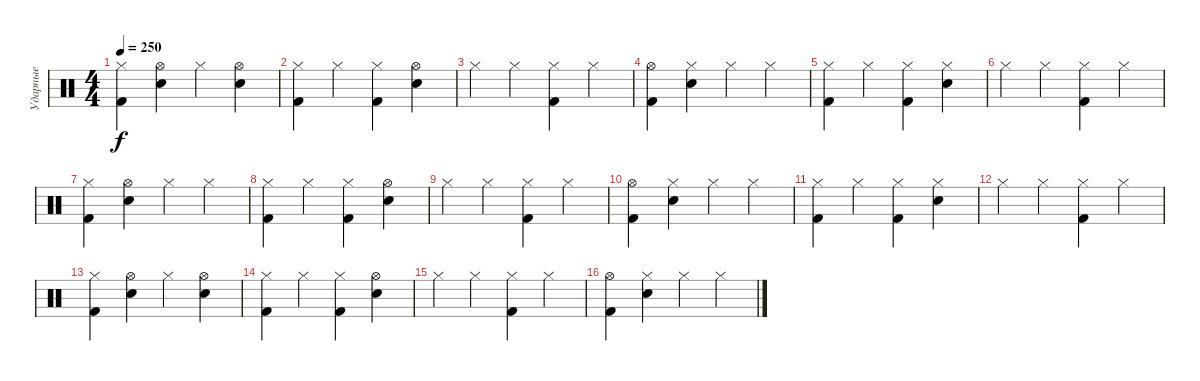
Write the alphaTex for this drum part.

\track ("Ударные" "Ударные") {instrument percussion}
\staff {score}
\articulation defaults
\ts (4 4)
\tempo 250
\clef neutral
\ks c
("Hi-Hat (closed)" "Kick (hit) 2").4{dy f} ("Snare (hit) 2" "Hi-Hat (open)").4 "Hi-Hat (closed)".4 ("Snare (hit) 2" "Hi-Hat (open)").4 |
("Hi-Hat (closed)" "Kick (hit) 2").4 "Hi-Hat (closed)".4 ("Hi-Hat (closed)" "Kick (hit) 2").4 ("Snare (hit) 2" "Hi-Hat (open)").4 |
"Hi-Hat (closed)".4 "Hi-Hat (closed)".4 ("Hi-Hat (closed)" "Kick (hit) 2").4 "Hi-Hat (closed)".4 |
("Hi-Hat (open)" "Kick (hit) 2").4 ("Snare (hit) 2" "Hi-Hat (closed)").4 "Hi-Hat (closed)".4 "Hi-Hat (closed)".4 |
("Hi-Hat (closed)" "Kick (hit) 2").4 "Hi-Hat (closed)".4 ("Hi-Hat (closed)" "Kick (hit) 2").4 ("Snare (hit) 2" "Hi-Hat (closed)").4 |
"Hi-Hat (closed)".4 "Hi-Hat (closed)".4 ("Hi-Hat (closed)" "Kick (hit) 2").4 "Hi-Hat (closed)".4 |
("Hi-Hat (closed)" "Kick (hit) 2").4 ("Snare (hit) 2" "Hi-Hat (open)").4 "Hi-Hat (closed)".4 "Hi-Hat (closed)".4 |
("Hi-Hat (closed)" "Kick (hit) 2").4 "Hi-Hat (closed)".4 ("Hi-Hat (closed)" "Kick (hit) 2").4 ("Snare (hit) 2" "Hi-Hat (open)").4 |
"Hi-Hat (closed)".4 "Hi-Hat (closed)".4 ("Hi-Hat (closed)" "Kick (hit) 2").4 "Hi-Hat (closed)".4 |
("Hi-Hat (open)" "Kick (hit) 2").4 ("Snare (hit) 2" "Hi-Hat (closed)").4 "Hi-Hat (closed)".4 "Hi-Hat (closed)".4 |
("Hi-Hat (closed)" "Kick (hit) 2").4 "Hi-Hat (closed)".4 ("Hi-Hat (closed)" "Kick (hit) 2").4 ("Snare (hit) 2" "Hi-Hat (closed)").4 |
"Hi-Hat (closed)".4 "Hi-Hat (closed)".4 ("Hi-Hat (closed)" "Kick (hit) 2").4 "Hi-Hat (closed)".4 |
("Hi-Hat (closed)" "Kick (hit) 2").4 ("Snare (hit) 2" "Hi-Hat (open)").4 "Hi-Hat (closed)".4 ("Snare (hit) 2" "Hi-Hat (open)").4 |
("Hi-Hat (closed)" "Kick (hit) 2").4 "Hi-Hat (closed)".4 ("Hi-Hat (closed)" "Kick (hit) 2").4 ("Snare (hit) 2" "Hi-Hat (open)").4 |
"Hi-Hat (closed)".4 "Hi-Hat (closed)".4 ("Hi-Hat (closed)" "Kick (hit) 2").4 "Hi-Hat (closed)".4 |
("Hi-Hat (open)" "Kick (hit) 2").4 ("Snare (hit) 2" "Hi-Hat (closed)").4 "Hi-Hat (closed)".4 "Hi-Hat (closed)".4
